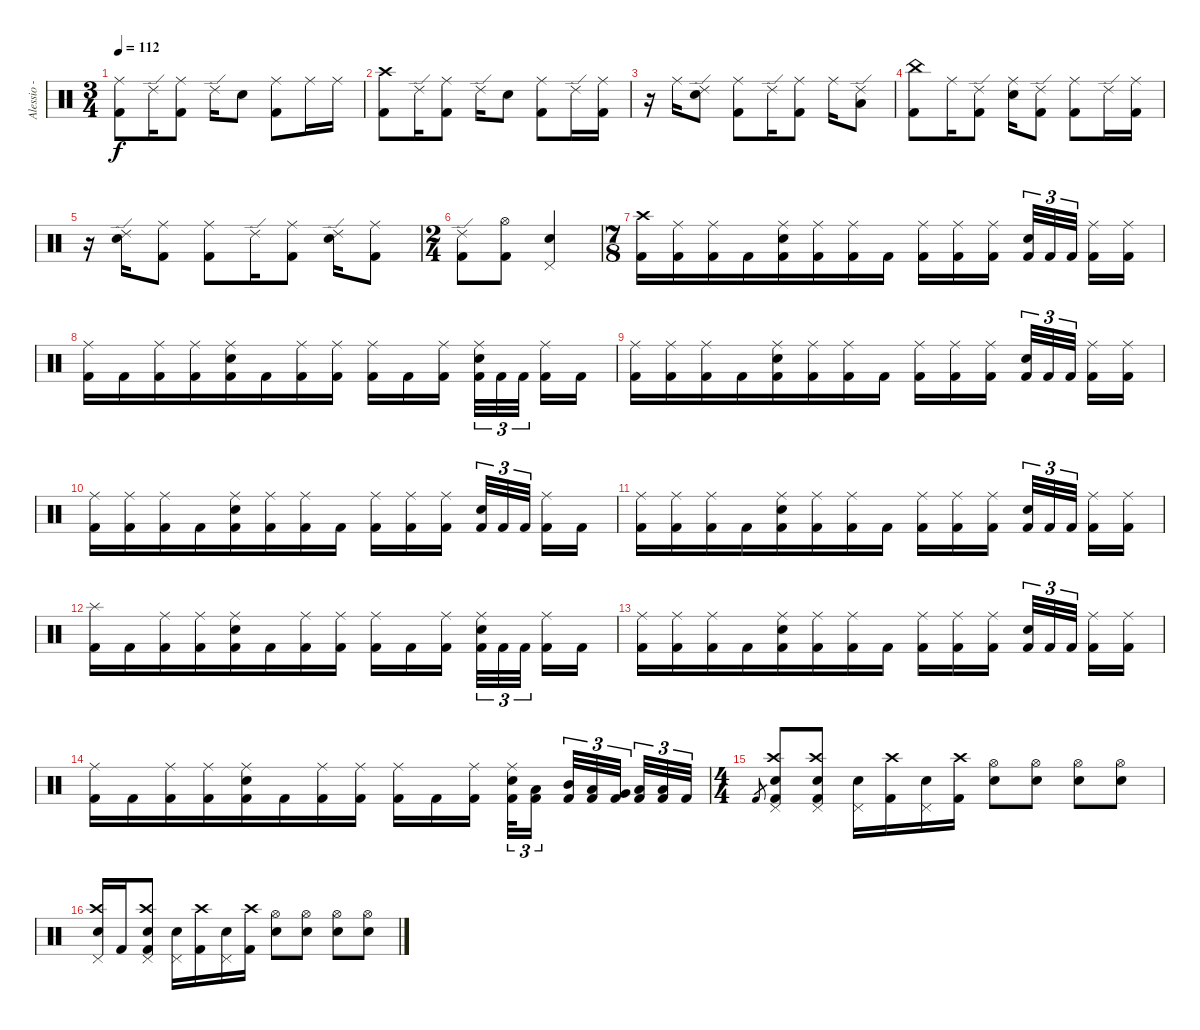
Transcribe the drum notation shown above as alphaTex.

\track ("Alessio - Drums" "Alessio - ") {instrument percussion}
\staff {score}
\articulation defaults
\ts (3 4)
\tempo 112
\clef neutral
\ks c
("Ride (middle)" "Kick (hit) 2").8{dy f} "Ride (edge) 2".16 ("Ride (middle)" "Kick (hit) 2").8 "Ride (edge) 2".16 "Electric Snare (hit)".8 ("Ride (middle)" "Kick (hit) 2").8 "Ride (middle)".16 "Ride (middle)".16 |
("Crash high (hit)" "Kick (hit) 2").8 "Ride (edge) 2".16 ("Ride (middle)" "Kick (hit) 2").8 "Ride (edge) 2".16 "Electric Snare (hit)".8 ("Ride (middle)" "Kick (hit) 2").8 "Ride (edge) 2".16 ("Ride (middle)" "Kick (hit) 2").16 |
r.16 "Ride (middle)".16 ("Ride (edge) 2" "Electric Snare (hit)").8 ("Ride (middle)" "Kick (hit) 2").8 "Ride (edge) 2".16 ("Ride (middle)" "Kick (hit) 2").8 "Ride (middle)".16 ("Ride (edge) 2" "Low Tom (hit)").8 |
("China (hit)" "Kick (hit) 2").8 "Ride (middle)".16 ("Ride (edge) 2" "Kick (hit) 2").8 ("Ride (middle)" "Electric Snare (hit)").16 ("Ride (edge) 2" "Kick (hit) 2").8 ("Ride (middle)" "Kick (hit) 2").8 "Ride (edge) 2".16 ("Ride (middle)" "Kick (hit) 2").16 |
r.16 ("Ride (edge) 2" "Electric Snare (hit)").16 ("Ride (middle)" "Kick (hit) 2").8 ("Ride (middle)" "Kick (hit) 2").8 "Ride (edge) 2".16 ("Ride (middle)" "Kick (hit) 2").8 ("Ride (edge) 2" "Electric Snare (hit)").16 ("Ride (middle)" "Kick (hit) 2").8 |
\ts (2 4)
("Ride (edge) 2" "Kick (hit) 2").8 ("Hi-Hat (open)" "Kick (hit) 2").8 ("Pedal Hi-Hat (hit)" "Electric Snare (hit)").4 |
\ts (7 8)
("Crash high (hit)" "Kick (hit) 2").16 ("Ride (middle)" "Kick (hit) 2").16 ("Ride (middle)" "Kick (hit) 2").16 "Kick (hit) 2".16 ("Ride (middle)" "Electric Snare (hit)" "Kick (hit) 2").16 ("Ride (middle)" "Kick (hit) 2").16 ("Ride (middle)" "Kick (hit) 2").16 "Kick (hit) 2".16 ("Ride (middle)" "Kick (hit) 2").16 ("Ride (middle)" "Kick (hit) 2").16 ("Ride (middle)" "Kick (hit) 2").16 ("Electric Snare (hit)" "Kick (hit) 2").32{tu (3 2)} "Kick (hit) 2".32{tu (3 2)} "Kick (hit) 2".32{tu (3 2)} ("Ride (middle)" "Kick (hit) 2").16 ("Ride (middle)" "Kick (hit) 2").16 |
("Ride (middle)" "Kick (hit) 2").16 "Kick (hit) 2".16 ("Ride (middle)" "Kick (hit) 2").16 ("Ride (middle)" "Kick (hit) 2").16 ("Ride (middle)" "Electric Snare (hit)" "Kick (hit) 2").16 "Kick (hit) 2".16 ("Ride (middle)" "Kick (hit) 2").16 ("Ride (middle)" "Kick (hit) 2").16 ("Ride (middle)" "Kick (hit) 2").16 "Kick (hit) 2".16 ("Ride (middle)" "Kick (hit) 2").16 ("Ride (middle)" "Electric Snare (hit)" "Kick (hit) 2").32{tu (3 2)} "Kick (hit) 2".32{tu (3 2)} "Kick (hit) 2".32{tu (3 2)} ("Ride (middle)" "Kick (hit) 2").16 "Kick (hit) 2".16 |
("Ride (middle)" "Kick (hit) 2").16 ("Ride (middle)" "Kick (hit) 2").16 ("Ride (middle)" "Kick (hit) 2").16 "Kick (hit) 2".16 ("Ride (middle)" "Electric Snare (hit)" "Kick (hit) 2").16 ("Ride (middle)" "Kick (hit) 2").16 ("Ride (middle)" "Kick (hit) 2").16 "Kick (hit) 2".16 ("Ride (middle)" "Kick (hit) 2").16 ("Ride (middle)" "Kick (hit) 2").16 ("Ride (middle)" "Kick (hit) 2").16 ("Electric Snare (hit)" "Kick (hit) 2").32{tu (3 2)} "Kick (hit) 2".32{tu (3 2)} "Kick (hit) 2".32{tu (3 2)} ("Ride (middle)" "Kick (hit) 2").16 ("Ride (middle)" "Kick (hit) 2").16 |
("Ride (middle)" "Kick (hit) 2").16 ("Ride (middle)" "Kick (hit) 2").16 ("Ride (middle)" "Kick (hit) 2").16 "Kick (hit) 2".16 ("Ride (middle)" "Electric Snare (hit)" "Kick (hit) 2").16 ("Ride (middle)" "Kick (hit) 2").16 ("Ride (middle)" "Kick (hit) 2").16 "Kick (hit) 2".16 ("Ride (middle)" "Kick (hit) 2").16 ("Ride (middle)" "Kick (hit) 2").16 ("Ride (middle)" "Kick (hit) 2").16 ("Electric Snare (hit)" "Kick (hit) 2").32{tu (3 2)} "Kick (hit) 2".32{tu (3 2)} "Kick (hit) 2".32{tu (3 2)} ("Ride (middle)" "Kick (hit) 2").16 "Kick (hit) 2".16 |
("Ride (middle)" "Kick (hit) 2").16 ("Ride (middle)" "Kick (hit) 2").16 ("Ride (middle)" "Kick (hit) 2").16 "Kick (hit) 2".16 ("Ride (middle)" "Electric Snare (hit)" "Kick (hit) 2").16 ("Ride (middle)" "Kick (hit) 2").16 ("Ride (middle)" "Kick (hit) 2").16 "Kick (hit) 2".16 ("Ride (middle)" "Kick (hit) 2").16 ("Ride (middle)" "Kick (hit) 2").16 ("Ride (middle)" "Kick (hit) 2").16 ("Electric Snare (hit)" "Kick (hit) 2").32{tu (3 2)} "Kick (hit) 2".32{tu (3 2)} "Kick (hit) 2".32{tu (3 2)} ("Ride (middle)" "Kick (hit) 2").16 ("Ride (middle)" "Kick (hit) 2").16 |
("Splash (hit)" "Kick (hit) 2").16 "Kick (hit) 2".16 ("Ride (middle)" "Kick (hit) 2").16 ("Ride (middle)" "Kick (hit) 2").16 ("Ride (middle)" "Electric Snare (hit)" "Kick (hit) 2").16 "Kick (hit) 2".16 ("Ride (middle)" "Kick (hit) 2").16 ("Ride (middle)" "Kick (hit) 2").16 ("Ride (middle)" "Kick (hit) 2").16 "Kick (hit) 2".16 ("Ride (middle)" "Kick (hit) 2").16 ("Ride (middle)" "Electric Snare (hit)" "Kick (hit) 2").32{tu (3 2)} "Kick (hit) 2".32{tu (3 2)} "Kick (hit) 2".32{tu (3 2)} ("Ride (middle)" "Kick (hit) 2").16 "Kick (hit) 2".16 |
("Ride (middle)" "Kick (hit) 2").16 ("Ride (middle)" "Kick (hit) 2").16 ("Ride (middle)" "Kick (hit) 2").16 "Kick (hit) 2".16 ("Ride (middle)" "Electric Snare (hit)" "Kick (hit) 2").16 ("Ride (middle)" "Kick (hit) 2").16 ("Ride (middle)" "Kick (hit) 2").16 "Kick (hit) 2".16 ("Ride (middle)" "Kick (hit) 2").16 ("Ride (middle)" "Kick (hit) 2").16 ("Ride (middle)" "Kick (hit) 2").16 ("Electric Snare (hit)" "Kick (hit) 2").32{tu (3 2)} "Kick (hit) 2".32{tu (3 2)} "Kick (hit) 2".32{tu (3 2)} ("Ride (middle)" "Kick (hit) 2").16 ("Ride (middle)" "Kick (hit) 2").16 |
("Ride (middle)" "Kick (hit) 2").16 "Kick (hit) 2".16 ("Ride (middle)" "Kick (hit) 2").16 ("Ride (middle)" "Kick (hit) 2").16 ("Ride (middle)" "Electric Snare (hit)" "Kick (hit) 2").16 "Kick (hit) 2".16 ("Ride (middle)" "Kick (hit) 2").16 ("Ride (middle)" "Kick (hit) 2").16 ("Ride (middle)" "Kick (hit) 2").16 "Kick (hit) 2".16 ("Ride (middle)" "Kick (hit) 2").16 ("Ride (middle)" "Electric Snare (hit)" "Kick (hit) 2").32{tu (3 2)} ("Low Tom (hit)" "Kick (hit) 2").16{tu (3 2)} ("Mid Tom (hit)" "Kick (hit) 2").32{tu (3 2)} ("Low Tom (hit)" "Kick (hit) 2").32{tu (3 2)} ("Very Low Tom (hit)" "Kick (hit) 2").32{tu (3 2)} ("Low Floor Tom (hit)" "Kick (hit) 2").32{tu (3 2)} ("Low Floor Tom (hit)" "Kick (hit) 2").32{tu (3 2)} "Kick (hit) 2".32{tu (3 2)} |
\ts (4 4)
"Kick (hit) 2".8{gr} ("Pedal Hi-Hat (hit)" "Crash high (hit)" "Electric Snare (hit)" "Kick (hit) 2").8 ("Pedal Hi-Hat (hit)" "Crash high (hit)" "Electric Snare (hit)" "Kick (hit) 2").8 ("Pedal Hi-Hat (hit)" "Electric Snare (hit)").16 ("Crash high (hit)" "Kick (hit) 2").16 ("Pedal Hi-Hat (hit)" "Electric Snare (hit)").16 ("Crash high (hit)" "Kick (hit) 2").16 ("Hi-Hat (open)" "Electric Snare (hit)").8 ("Hi-Hat (open)" "Electric Snare (hit)").8 ("Hi-Hat (open)" "Electric Snare (hit)").8 ("Hi-Hat (open)" "Electric Snare (hit)").8 |
("Pedal Hi-Hat (hit)" "Crash high (hit)" "Electric Snare (hit)").16 "Kick (hit) 2".16 ("Pedal Hi-Hat (hit)" "Crash high (hit)" "Electric Snare (hit)" "Kick (hit) 2").8 ("Pedal Hi-Hat (hit)" "Electric Snare (hit)").16 ("Crash high (hit)" "Kick (hit) 2").16 ("Pedal Hi-Hat (hit)" "Electric Snare (hit)").16 ("Crash high (hit)" "Kick (hit) 2").16 ("Hi-Hat (open)" "Electric Snare (hit)").8 ("Hi-Hat (open)" "Electric Snare (hit)").8 ("Hi-Hat (open)" "Electric Snare (hit)").8 ("Hi-Hat (open)" "Electric Snare (hit)").8
